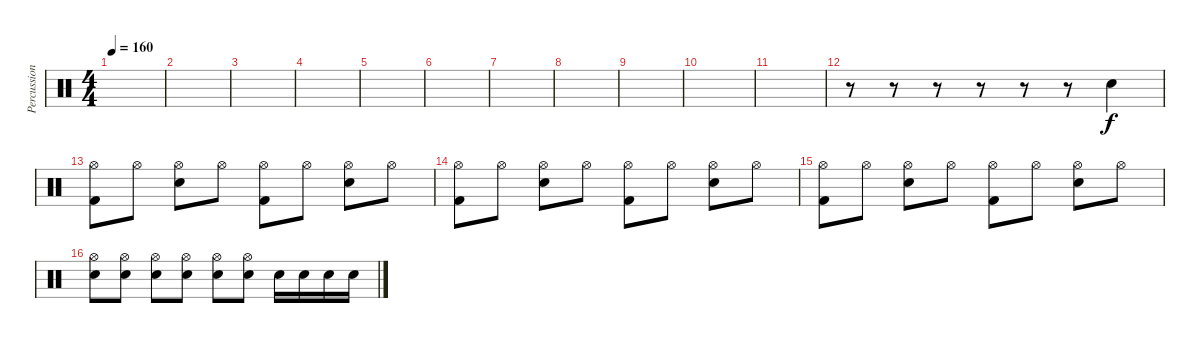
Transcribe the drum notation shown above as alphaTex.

\track ("Percussion" "Percussion") {instrument percussion}
\staff {score}
\articulation defaults
\ts (4 4)
\tempo 160
\clef neutral
\ks c
|
|
|
|
|
|
|
|
|
|
|
r.8 r.8 r.8 r.8 r.8 r.8 "Electric Snare (hit)".4 |
("Hi-Hat (open)" "Kick (hit) 2").8 "Hi-Hat (open)".8 ("Hi-Hat (open)" "Electric Snare (hit)").8 "Hi-Hat (open)".8 ("Hi-Hat (open)" "Kick (hit) 2").8 "Hi-Hat (open)".8 ("Hi-Hat (open)" "Electric Snare (hit)").8 "Hi-Hat (open)".8 |
("Hi-Hat (open)" "Kick (hit) 2").8 "Hi-Hat (open)".8 ("Hi-Hat (open)" "Electric Snare (hit)").8 "Hi-Hat (open)".8 ("Hi-Hat (open)" "Kick (hit) 2").8 "Hi-Hat (open)".8 ("Hi-Hat (open)" "Electric Snare (hit)").8 "Hi-Hat (open)".8 |
("Hi-Hat (open)" "Kick (hit) 2").8 "Hi-Hat (open)".8 ("Hi-Hat (open)" "Electric Snare (hit)").8 "Hi-Hat (open)".8 ("Hi-Hat (open)" "Kick (hit) 2").8 "Hi-Hat (open)".8 ("Hi-Hat (open)" "Electric Snare (hit)").8 "Hi-Hat (open)".8 |
("Hi-Hat (open)" "Electric Snare (hit)").8 ("Hi-Hat (open)" "Electric Snare (hit)").8 ("Hi-Hat (open)" "Electric Snare (hit)").8 ("Hi-Hat (open)" "Electric Snare (hit)").8 ("Hi-Hat (open)" "Electric Snare (hit)").8 ("Hi-Hat (open)" "Electric Snare (hit)").8 "Electric Snare (hit)".16 "Electric Snare (hit)".16 "Electric Snare (hit)".16 "Electric Snare (hit)".16
